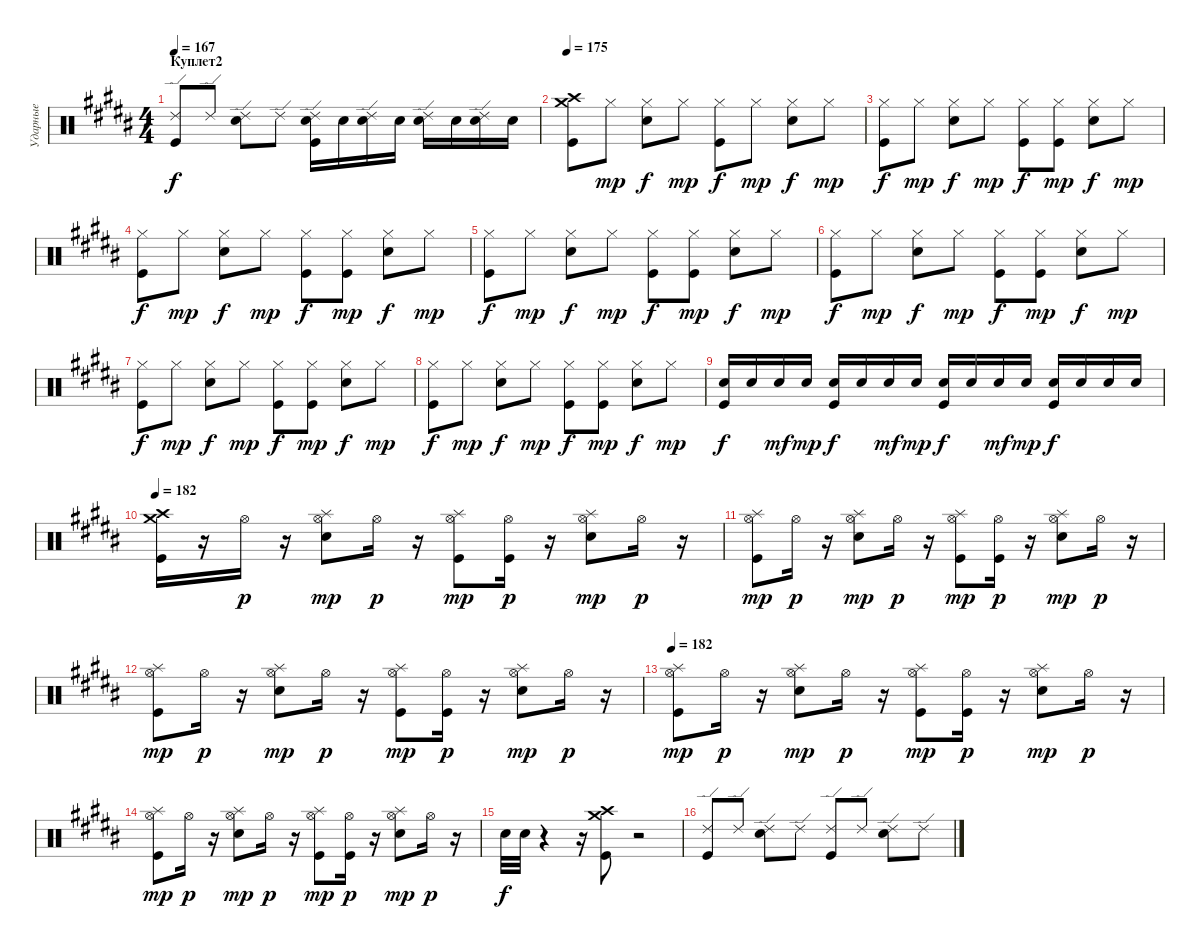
\track ("Ударные" "Ударные") {instrument percussion}
\staff {score}
\articulation defaults
\ts (4 4)
\section ("" "Куплет2")
\tempo 167
\clef neutral
\ks b
("Ride (edge) 2" "Kick (hit)").8{dy f} "Ride (edge) 2".8 ("Electric Snare (hit)" "Ride (edge) 2").8 "Ride (edge) 2".8 ("Electric Snare (hit)" "Kick (hit)" "Ride (edge) 2").16 "Electric Snare (hit)".16 ("Electric Snare (hit)" "Ride (edge) 2").16 "Electric Snare (hit)".16 ("Electric Snare (hit)" "Ride (edge) 2").16 "Electric Snare (hit)".16 ("Electric Snare (hit)" "Ride (edge) 2").16 "Electric Snare (hit)".16 |
\tempo 175
("Crash medium (hit)" "Crash high (hit)" "Kick (hit)").8 "Hi-Hat (closed)".8{dy mp} ("Electric Snare (hit)" "Hi-Hat (closed)").8{dy f} "Hi-Hat (closed)".8{dy mp} ("Kick (hit)" "Hi-Hat (closed)").8{dy f} "Hi-Hat (closed)".8{dy mp} ("Electric Snare (hit)" "Hi-Hat (closed)").8{dy f} "Hi-Hat (closed)".8{dy mp} |
("Hi-Hat (closed)" "Kick (hit)").8{dy f} "Hi-Hat (closed)".8{dy mp} ("Electric Snare (hit)" "Hi-Hat (closed)").8{dy f} "Hi-Hat (closed)".8{dy mp} ("Kick (hit)" "Hi-Hat (closed)").8{dy f} ("Kick (hit)" "Hi-Hat (closed)").8{dy mp} ("Electric Snare (hit)" "Hi-Hat (closed)").8{dy f} "Hi-Hat (closed)".8{dy mp} |
("Hi-Hat (closed)" "Kick (hit)").8{dy f} "Hi-Hat (closed)".8{dy mp} ("Electric Snare (hit)" "Hi-Hat (closed)").8{dy f} "Hi-Hat (closed)".8{dy mp} ("Kick (hit)" "Hi-Hat (closed)").8{dy f} ("Kick (hit)" "Hi-Hat (closed)").8{dy mp} ("Electric Snare (hit)" "Hi-Hat (closed)").8{dy f} "Hi-Hat (closed)".8{dy mp} |
("Hi-Hat (closed)" "Kick (hit)").8{dy f} "Hi-Hat (closed)".8{dy mp} ("Electric Snare (hit)" "Hi-Hat (closed)").8{dy f} "Hi-Hat (closed)".8{dy mp} ("Kick (hit)" "Hi-Hat (closed)").8{dy f} ("Kick (hit)" "Hi-Hat (closed)").8{dy mp} ("Electric Snare (hit)" "Hi-Hat (closed)").8{dy f} "Hi-Hat (closed)".8{dy mp} |
("Hi-Hat (closed)" "Kick (hit)").8{dy f} "Hi-Hat (closed)".8{dy mp} ("Electric Snare (hit)" "Hi-Hat (closed)").8{dy f} "Hi-Hat (closed)".8{dy mp} ("Kick (hit)" "Hi-Hat (closed)").8{dy f} ("Kick (hit)" "Hi-Hat (closed)").8{dy mp} ("Electric Snare (hit)" "Hi-Hat (closed)").8{dy f} "Hi-Hat (closed)".8{dy mp} |
("Hi-Hat (closed)" "Kick (hit)").8{dy f} "Hi-Hat (closed)".8{dy mp} ("Electric Snare (hit)" "Hi-Hat (closed)").8{dy f} "Hi-Hat (closed)".8{dy mp} ("Kick (hit)" "Hi-Hat (closed)").8{dy f} ("Kick (hit)" "Hi-Hat (closed)").8{dy mp} ("Electric Snare (hit)" "Hi-Hat (closed)").8{dy f} "Hi-Hat (closed)".8{dy mp} |
("Hi-Hat (closed)" "Kick (hit)").8{dy f} "Hi-Hat (closed)".8{dy mp} ("Electric Snare (hit)" "Hi-Hat (closed)").8{dy f} "Hi-Hat (closed)".8{dy mp} ("Kick (hit)" "Hi-Hat (closed)").8{dy f} ("Kick (hit)" "Hi-Hat (closed)").8{dy mp} ("Electric Snare (hit)" "Hi-Hat (closed)").8{dy f} "Hi-Hat (closed)".8{dy mp} |
("Electric Snare (hit)" "Kick (hit)").16{dy f} "Electric Snare (hit)".16 "Electric Snare (hit)".16{dy mf} "Electric Snare (hit)".16{dy mp} ("Kick (hit)" "Electric Snare (hit)").16{dy f} "Electric Snare (hit)".16 "Electric Snare (hit)".16{dy mf} "Electric Snare (hit)".16{dy mp} ("Kick (hit)" "Electric Snare (hit)").16{dy f} "Electric Snare (hit)".16 "Electric Snare (hit)".16{dy mf} "Electric Snare (hit)".16{dy mp} ("Kick (hit)" "Electric Snare (hit)").16{dy f} "Electric Snare (hit)".16 "Electric Snare (hit)".16 "Electric Snare (hit)".16 |
\tempo 182
("Crash high (hit)" "Crash medium (hit)" "Kick (hit)").16 r.16 "Hi-Hat (open)".16{dy p} r.16 ("Splash (hit)" "Hi-Hat (open)" "Electric Snare (hit)").8{dy mp} "Hi-Hat (open)".16{dy p} r.16 ("Splash (hit)" "Hi-Hat (open)" "Kick (hit)").8{dy mp} ("Hi-Hat (open)" "Kick (hit)").16{dy p} r.16 ("Splash (hit)" "Hi-Hat (open)" "Electric Snare (hit)").8{dy mp} "Hi-Hat (open)".16{dy p} r.16 |
("Splash (hit)" "Hi-Hat (open)" "Kick (hit)").8{dy mp} "Hi-Hat (open)".16{dy p} r.16 ("Splash (hit)" "Hi-Hat (open)" "Electric Snare (hit)").8{dy mp} "Hi-Hat (open)".16{dy p} r.16 ("Splash (hit)" "Hi-Hat (open)" "Kick (hit)").8{dy mp} ("Hi-Hat (open)" "Kick (hit)").16{dy p} r.16 ("Splash (hit)" "Hi-Hat (open)" "Electric Snare (hit)").8{dy mp} "Hi-Hat (open)".16{dy p} r.16 |
("Splash (hit)" "Hi-Hat (open)" "Kick (hit)").8{dy mp} "Hi-Hat (open)".16{dy p} r.16 ("Splash (hit)" "Hi-Hat (open)" "Electric Snare (hit)").8{dy mp} "Hi-Hat (open)".16{dy p} r.16 ("Splash (hit)" "Hi-Hat (open)" "Kick (hit)").8{dy mp} ("Hi-Hat (open)" "Kick (hit)").16{dy p} r.16 ("Splash (hit)" "Hi-Hat (open)" "Electric Snare (hit)").8{dy mp} "Hi-Hat (open)".16{dy p} r.16 |
\tempo 182
("Splash (hit)" "Hi-Hat (open)" "Kick (hit)").8{dy mp} "Hi-Hat (open)".16{dy p} r.16 ("Splash (hit)" "Hi-Hat (open)" "Electric Snare (hit)").8{dy mp} "Hi-Hat (open)".16{dy p} r.16 ("Splash (hit)" "Hi-Hat (open)" "Kick (hit)").8{dy mp} ("Hi-Hat (open)" "Kick (hit)").16{dy p} r.16 ("Splash (hit)" "Hi-Hat (open)" "Electric Snare (hit)").8{dy mp} "Hi-Hat (open)".16{dy p} r.16 |
("Splash (hit)" "Hi-Hat (open)" "Kick (hit)").8{dy mp} "Hi-Hat (open)".16{dy p} r.16 ("Splash (hit)" "Hi-Hat (open)" "Electric Snare (hit)").8{dy mp} "Hi-Hat (open)".16{dy p} r.16 ("Splash (hit)" "Hi-Hat (open)" "Kick (hit)").8{dy mp} ("Hi-Hat (open)" "Kick (hit)").16{dy p} r.16 ("Splash (hit)" "Hi-Hat (open)" "Electric Snare (hit)").8{dy mp} "Hi-Hat (open)".16{dy p} r.16 |
"Electric Snare (hit)".32{dy f} "Electric Snare (hit)".32 r.4 r.16 ("Kick (hit)" "Crash high (hit)" "Crash medium (hit)").8 r.2 |
("Kick (hit)" "Ride (edge) 2").8 "Ride (edge) 2".8 ("Electric Snare (hit)" "Ride (edge) 2").8 "Ride (edge) 2".8 ("Kick (hit)" "Ride (edge) 2").8 "Ride (edge) 2".8 ("Electric Snare (hit)" "Ride (edge) 2").8 "Ride (edge) 2".8
